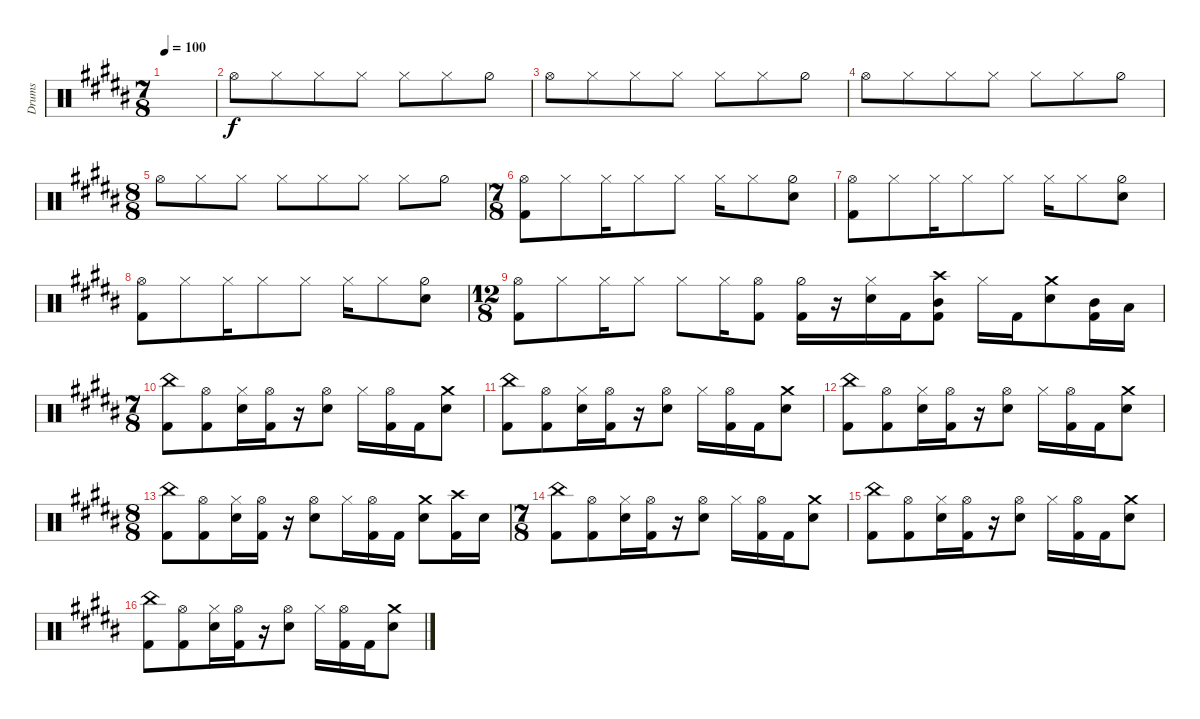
\bracketExtendMode groupsimilarinstruments
\otherSystemsTrackNameOrientation horizontal
\track ("Drumkit" "Drums") {instrument percussion}
\staff {score}
\articulation defaults
\ts (7 8)
\tempo 100
\clef neutral
\ks b
|
"Hi-Hat (open)"{acc bb}.8 "Hi-Hat (closed)"{acc bb}.8 "Hi-Hat (closed)"{acc bb}.8 "Hi-Hat (closed)"{acc bb}.8 "Hi-Hat (closed)"{acc bb}.8 "Hi-Hat (closed)"{acc bb}.8 "Hi-Hat (half)"{acc bb}.8 |
"Hi-Hat (open)"{acc bb}.8 "Hi-Hat (closed)"{acc bb}.8 "Hi-Hat (closed)"{acc bb}.8 "Hi-Hat (closed)"{acc bb}.8 "Hi-Hat (closed)"{acc bb}.8 "Hi-Hat (closed)"{acc bb}.8 "Hi-Hat (half)"{acc bb}.8 |
"Hi-Hat (open)"{acc bb}.8 "Hi-Hat (closed)"{acc bb}.8 "Hi-Hat (closed)"{acc bb}.8 "Hi-Hat (closed)"{acc bb}.8 "Hi-Hat (closed)"{acc bb}.8 "Hi-Hat (closed)"{acc bb}.8 "Hi-Hat (half)"{acc bb}.8 |
\ts (8 8)
"Hi-Hat (open)"{acc bb}.8 "Hi-Hat (closed)"{acc bb}.8 "Hi-Hat (closed)"{acc bb}.8 "Hi-Hat (closed)"{acc bb}.8 "Hi-Hat (closed)"{acc bb}.8 "Hi-Hat (closed)"{acc bb}.8 "Hi-Hat (closed)"{acc bb}.8 "Hi-Hat (half)"{acc bb}.8 |
\ts (7 8)
("Hi-Hat (open)"{acc bb} "Kick (hit) 2"{acc bb}).8 "Hi-Hat (closed)"{acc bb}.8 "Hi-Hat (closed)"{acc bb}.16 "Hi-Hat (closed)"{acc bb}.8 "Hi-Hat (closed)"{acc bb}.8 "Hi-Hat (closed)"{acc bb}.16 "Hi-Hat (closed)"{acc bb}.8 ("Hi-Hat (half)"{acc bb} "Snare (hit) 2"{acc bb}).8 |
("Hi-Hat (open)"{acc bb} "Kick (hit) 2"{acc bb}).8 "Hi-Hat (closed)"{acc bb}.8 "Hi-Hat (closed)"{acc bb}.16 "Hi-Hat (closed)"{acc bb}.8 "Hi-Hat (closed)"{acc bb}.8 "Hi-Hat (closed)"{acc bb}.16 "Hi-Hat (closed)"{acc bb}.8 ("Hi-Hat (half)"{acc bb} "Snare (hit) 2"{acc bb}).8 |
("Hi-Hat (open)"{acc bb} "Kick (hit) 2"{acc bb}).8 "Hi-Hat (closed)"{acc bb}.8 "Hi-Hat (closed)"{acc bb}.16 "Hi-Hat (closed)"{acc bb}.8 "Hi-Hat (closed)"{acc bb}.8 "Hi-Hat (closed)"{acc bb}.16 "Hi-Hat (closed)"{acc bb}.8 ("Hi-Hat (half)"{acc bb} "Snare (hit) 2"{acc bb}).8 |
\ts (12 8)
("Hi-Hat (open)"{acc bb} "Kick (hit) 2"{acc bb}).8 "Hi-Hat (closed)"{acc bb}.8 "Hi-Hat (closed)"{acc bb}.16 "Hi-Hat (closed)"{acc bb}.8 "Hi-Hat (closed)"{acc bb}.8 "Hi-Hat (closed)"{acc bb}.16 ("Hi-Hat (open)"{acc bb} "Kick (hit) 2"{acc bb}).8 ("Hi-Hat (half)"{acc bb} "Kick (hit) 2"{acc bb}).16 r.16 ("Hi-Hat (closed)"{acc bb} "Snare (hit) 2"{acc bb}).16 "Kick (hit) 2"{acc bb}.16 ("Crash high (hit)"{acc bb} "Kick (hit) 2"{acc bb} "Mid Tom (hit)"{acc bb}).8 "Hi-Hat (closed)"{acc bb}.16 "Kick (hit) 2"{acc bb}.16 ("Snare (hit) 2"{acc bb} "Crash medium (hit)"{acc bb}).8 ("Kick (hit) 2"{acc bb} "Mid Tom (hit)"{acc bb}).16 "Low Tom (hit)"{acc bb}.16 |
\ts (7 8)
("Kick (hit) 2"{acc bb} "China (hit)"{acc bb}).8 ("Hi-Hat (open)"{acc bb} "Kick (hit) 2"{acc bb}).8 ("Hi-Hat (closed)"{acc bb} "Snare (hit) 2"{acc bb}).16 ("Hi-Hat (open)"{acc bb} "Kick (hit) 2"{acc bb}).16 r.16 ("Hi-Hat (open)"{acc bb} "Snare (hit) 2"{acc bb}).8 "Hi-Hat (closed)"{acc bb}.16 ("Hi-Hat (open)"{acc bb} "Kick (hit) 2"{acc bb}).16 "Kick (hit) 2"{acc bb}.16 ("Snare (hit) 2"{acc bb} "Crash medium (hit)"{acc bb}).8 |
("Kick (hit) 2"{acc bb} "China (hit)"{acc bb}).8 ("Hi-Hat (open)"{acc bb} "Kick (hit) 2"{acc bb}).8 ("Hi-Hat (closed)"{acc bb} "Snare (hit) 2"{acc bb}).16 ("Hi-Hat (open)"{acc bb} "Kick (hit) 2"{acc bb}).16 r.16 ("Hi-Hat (open)"{acc bb} "Snare (hit) 2"{acc bb}).8 "Hi-Hat (closed)"{acc bb}.16 ("Hi-Hat (open)"{acc bb} "Kick (hit) 2"{acc bb}).16 "Kick (hit) 2"{acc bb}.16 ("Snare (hit) 2"{acc bb} "Crash medium (hit)"{acc bb}).8 |
("Kick (hit) 2"{acc bb} "China (hit)"{acc bb}).8 ("Hi-Hat (open)"{acc bb} "Kick (hit) 2"{acc bb}).8 ("Hi-Hat (closed)"{acc bb} "Snare (hit) 2"{acc bb}).16 ("Hi-Hat (open)"{acc bb} "Kick (hit) 2"{acc bb}).16 r.16 ("Hi-Hat (open)"{acc bb} "Snare (hit) 2"{acc bb}).8 "Hi-Hat (closed)"{acc bb}.16 ("Hi-Hat (open)"{acc bb} "Kick (hit) 2"{acc bb}).16 "Kick (hit) 2"{acc bb}.16 ("Snare (hit) 2"{acc bb} "Crash medium (hit)"{acc bb}).8 |
\ts (8 8)
("Kick (hit) 2"{acc bb} "China (hit)"{acc bb}).8 ("Hi-Hat (open)"{acc bb} "Kick (hit) 2"{acc bb}).8 ("Hi-Hat (closed)"{acc bb} "Snare (hit) 2"{acc bb}).16 ("Hi-Hat (open)"{acc bb} "Kick (hit) 2"{acc bb}).16 r.16 ("Hi-Hat (open)"{acc bb} "Snare (hit) 2"{acc bb}).8 "Hi-Hat (closed)"{acc bb}.16 ("Hi-Hat (open)"{acc bb} "Kick (hit) 2"{acc bb}).16 "Kick (hit) 2"{acc bb}.16 ("Snare (hit) 2"{acc bb} "Crash medium (hit)"{acc bb}).8 ("Crash high (hit)"{acc bb} "Kick (hit) 2"{acc bb}).16 "Snare (hit) 2"{acc bb}.16 |
\ts (7 8)
("Kick (hit) 2"{acc bb} "China (hit)"{acc bb}).8 ("Hi-Hat (open)"{acc bb} "Kick (hit) 2"{acc bb}).8 ("Hi-Hat (closed)"{acc bb} "Snare (hit) 2"{acc bb}).16 ("Hi-Hat (open)"{acc bb} "Kick (hit) 2"{acc bb}).16 r.16 ("Hi-Hat (open)"{acc bb} "Snare (hit) 2"{acc bb}).8 "Hi-Hat (closed)"{acc bb}.16 ("Hi-Hat (open)"{acc bb} "Kick (hit) 2"{acc bb}).16 "Kick (hit) 2"{acc bb}.16 ("Snare (hit) 2"{acc bb} "Crash medium (hit)"{acc bb}).8 |
("Kick (hit) 2"{acc bb} "China (hit)"{acc bb}).8 ("Hi-Hat (open)"{acc bb} "Kick (hit) 2"{acc bb}).8 ("Hi-Hat (closed)"{acc bb} "Snare (hit) 2"{acc bb}).16 ("Hi-Hat (open)"{acc bb} "Kick (hit) 2"{acc bb}).16 r.16 ("Hi-Hat (open)"{acc bb} "Snare (hit) 2"{acc bb}).8 "Hi-Hat (closed)"{acc bb}.16 ("Hi-Hat (open)"{acc bb} "Kick (hit) 2"{acc bb}).16 "Kick (hit) 2"{acc bb}.16 ("Snare (hit) 2"{acc bb} "Crash medium (hit)"{acc bb}).8 |
("Kick (hit) 2"{acc bb} "China (hit)"{acc bb}).8 ("Hi-Hat (open)"{acc bb} "Kick (hit) 2"{acc bb}).8 ("Hi-Hat (closed)"{acc bb} "Snare (hit) 2"{acc bb}).16 ("Hi-Hat (open)"{acc bb} "Kick (hit) 2"{acc bb}).16 r.16 ("Hi-Hat (open)"{acc bb} "Snare (hit) 2"{acc bb}).8 "Hi-Hat (closed)"{acc bb}.16 ("Hi-Hat (open)"{acc bb} "Kick (hit) 2"{acc bb}).16 "Kick (hit) 2"{acc bb}.16 ("Snare (hit) 2"{acc bb} "Crash medium (hit)"{acc bb}).8
